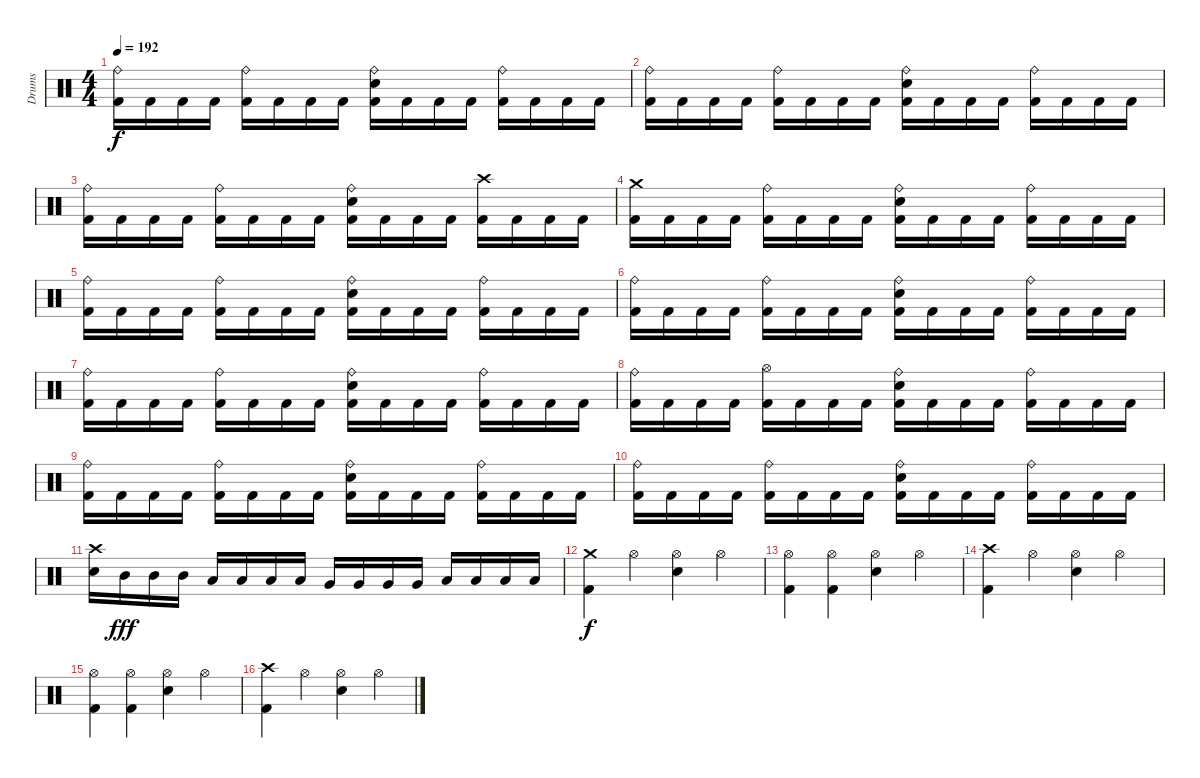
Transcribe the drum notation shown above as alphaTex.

\track ("Drums" "Drums") {instrument percussion}
\staff {score}
\articulation defaults
\ts (4 4)
\tempo 192
\clef neutral
\ks c
("Ride (bell)" "Kick (hit) 2").16{dy f} "Kick (hit) 2".16 "Kick (hit) 2".16 "Kick (hit) 2".16 ("Ride (bell)" "Kick (hit) 2").16 "Kick (hit) 2".16 "Kick (hit) 2".16 "Kick (hit) 2".16 ("Ride (bell)" "Electric Snare (hit)" "Kick (hit) 2").16 "Kick (hit) 2".16 "Kick (hit) 2".16 "Kick (hit) 2".16 ("Ride (bell)" "Kick (hit) 2").16 "Kick (hit) 2".16 "Kick (hit) 2".16 "Kick (hit) 2".16 |
("Ride (bell)" "Kick (hit) 2").16 "Kick (hit) 2".16 "Kick (hit) 2".16 "Kick (hit) 2".16 ("Ride (bell)" "Kick (hit) 2").16 "Kick (hit) 2".16 "Kick (hit) 2".16 "Kick (hit) 2".16 ("Ride (bell)" "Electric Snare (hit)" "Kick (hit) 2").16 "Kick (hit) 2".16 "Kick (hit) 2".16 "Kick (hit) 2".16 ("Ride (bell)" "Kick (hit) 2").16 "Kick (hit) 2".16 "Kick (hit) 2".16 "Kick (hit) 2".16 |
("Ride (bell)" "Kick (hit) 2").16 "Kick (hit) 2".16 "Kick (hit) 2".16 "Kick (hit) 2".16 ("Ride (bell)" "Kick (hit) 2").16 "Kick (hit) 2".16 "Kick (hit) 2".16 "Kick (hit) 2".16 ("Ride (bell)" "Electric Snare (hit)" "Kick (hit) 2").16 "Kick (hit) 2".16 "Kick (hit) 2".16 "Kick (hit) 2".16 ("Crash high (hit)" "Kick (hit) 2").16 "Kick (hit) 2".16 "Kick (hit) 2".16 "Kick (hit) 2".16 |
("Crash medium (hit)" "Kick (hit) 2").16 "Kick (hit) 2".16 "Kick (hit) 2".16 "Kick (hit) 2".16 ("Ride (bell)" "Kick (hit) 2").16 "Kick (hit) 2".16 "Kick (hit) 2".16 "Kick (hit) 2".16 ("Ride (bell)" "Electric Snare (hit)" "Kick (hit) 2").16 "Kick (hit) 2".16 "Kick (hit) 2".16 "Kick (hit) 2".16 ("Ride (bell)" "Kick (hit) 2").16 "Kick (hit) 2".16 "Kick (hit) 2".16 "Kick (hit) 2".16 |
("Ride (bell)" "Kick (hit) 2").16 "Kick (hit) 2".16 "Kick (hit) 2".16 "Kick (hit) 2".16 ("Ride (bell)" "Kick (hit) 2").16 "Kick (hit) 2".16 "Kick (hit) 2".16 "Kick (hit) 2".16 ("Ride (bell)" "Electric Snare (hit)" "Kick (hit) 2").16 "Kick (hit) 2".16 "Kick (hit) 2".16 "Kick (hit) 2".16 ("Ride (bell)" "Kick (hit) 2").16 "Kick (hit) 2".16 "Kick (hit) 2".16 "Kick (hit) 2".16 |
("Ride (bell)" "Kick (hit) 2").16 "Kick (hit) 2".16 "Kick (hit) 2".16 "Kick (hit) 2".16 ("Ride (bell)" "Kick (hit) 2").16 "Kick (hit) 2".16 "Kick (hit) 2".16 "Kick (hit) 2".16 ("Ride (bell)" "Electric Snare (hit)" "Kick (hit) 2").16 "Kick (hit) 2".16 "Kick (hit) 2".16 "Kick (hit) 2".16 ("Ride (bell)" "Kick (hit) 2").16 "Kick (hit) 2".16 "Kick (hit) 2".16 "Kick (hit) 2".16 |
("Ride (bell)" "Kick (hit) 2").16 "Kick (hit) 2".16 "Kick (hit) 2".16 "Kick (hit) 2".16 ("Ride (bell)" "Kick (hit) 2").16 "Kick (hit) 2".16 "Kick (hit) 2".16 "Kick (hit) 2".16 ("Ride (bell)" "Electric Snare (hit)" "Kick (hit) 2").16 "Kick (hit) 2".16 "Kick (hit) 2".16 "Kick (hit) 2".16 ("Ride (bell)" "Kick (hit) 2").16 "Kick (hit) 2".16 "Kick (hit) 2".16 "Kick (hit) 2".16 |
("Ride (bell)" "Kick (hit) 2").16 "Kick (hit) 2".16 "Kick (hit) 2".16 "Kick (hit) 2".16 ("Hi-Hat (open)" "Kick (hit) 2").16 "Kick (hit) 2".16 "Kick (hit) 2".16 "Kick (hit) 2".16 ("Ride (bell)" "Electric Snare (hit)" "Kick (hit) 2").16 "Kick (hit) 2".16 "Kick (hit) 2".16 "Kick (hit) 2".16 ("Ride (bell)" "Kick (hit) 2").16 "Kick (hit) 2".16 "Kick (hit) 2".16 "Kick (hit) 2".16 |
("Ride (bell)" "Kick (hit) 2").16 "Kick (hit) 2".16 "Kick (hit) 2".16 "Kick (hit) 2".16 ("Ride (bell)" "Kick (hit) 2").16 "Kick (hit) 2".16 "Kick (hit) 2".16 "Kick (hit) 2".16 ("Ride (bell)" "Electric Snare (hit)" "Kick (hit) 2").16 "Kick (hit) 2".16 "Kick (hit) 2".16 "Kick (hit) 2".16 ("Ride (bell)" "Kick (hit) 2").16 "Kick (hit) 2".16 "Kick (hit) 2".16 "Kick (hit) 2".16 |
("Ride (bell)" "Kick (hit) 2").16 "Kick (hit) 2".16 "Kick (hit) 2".16 "Kick (hit) 2".16 ("Ride (bell)" "Kick (hit) 2").16 "Kick (hit) 2".16 "Kick (hit) 2".16 "Kick (hit) 2".16 ("Ride (bell)" "Electric Snare (hit)" "Kick (hit) 2").16 "Kick (hit) 2".16 "Kick (hit) 2".16 "Kick (hit) 2".16 ("Ride (bell)" "Kick (hit) 2").16 "Kick (hit) 2".16 "Kick (hit) 2".16 "Kick (hit) 2".16 |
("Crash high (hit)" "Electric Snare (hit)").16 "Mid Tom (hit)".16{dy fff} "Mid Tom (hit)".16 "Mid Tom (hit)".16 "Low Tom (hit)".16 "Low Tom (hit)".16 "Low Tom (hit)".16 "Low Tom (hit)".16 "Very Low Tom (hit)".16 "Very Low Tom (hit)".16 "Very Low Tom (hit)".16 "Very Low Tom (hit)".16 "Low Floor Tom (hit)".16 "Low Floor Tom (hit)".16 "Low Floor Tom (hit)".16 "Low Floor Tom (hit)".16 |
("Crash medium (hit)" "Kick (hit) 2").4{dy f} "Hi-Hat (open)".4 ("Hi-Hat (open)" "Electric Snare (hit)").4 "Hi-Hat (open)".4 |
("Hi-Hat (open)" "Kick (hit) 2").4 ("Hi-Hat (open)" "Kick (hit) 2").4 ("Hi-Hat (open)" "Electric Snare (hit)").4 "Hi-Hat (open)".4 |
("Crash high (hit)" "Kick (hit) 2").4 "Hi-Hat (open)".4 ("Hi-Hat (open)" "Electric Snare (hit)").4 "Hi-Hat (open)".4 |
("Hi-Hat (open)" "Kick (hit) 2").4 ("Hi-Hat (open)" "Kick (hit) 2").4 ("Hi-Hat (open)" "Electric Snare (hit)").4 "Hi-Hat (open)".4 |
("Crash high (hit)" "Kick (hit) 2").4 "Hi-Hat (open)".4 ("Hi-Hat (open)" "Electric Snare (hit)").4 "Hi-Hat (open)".4
